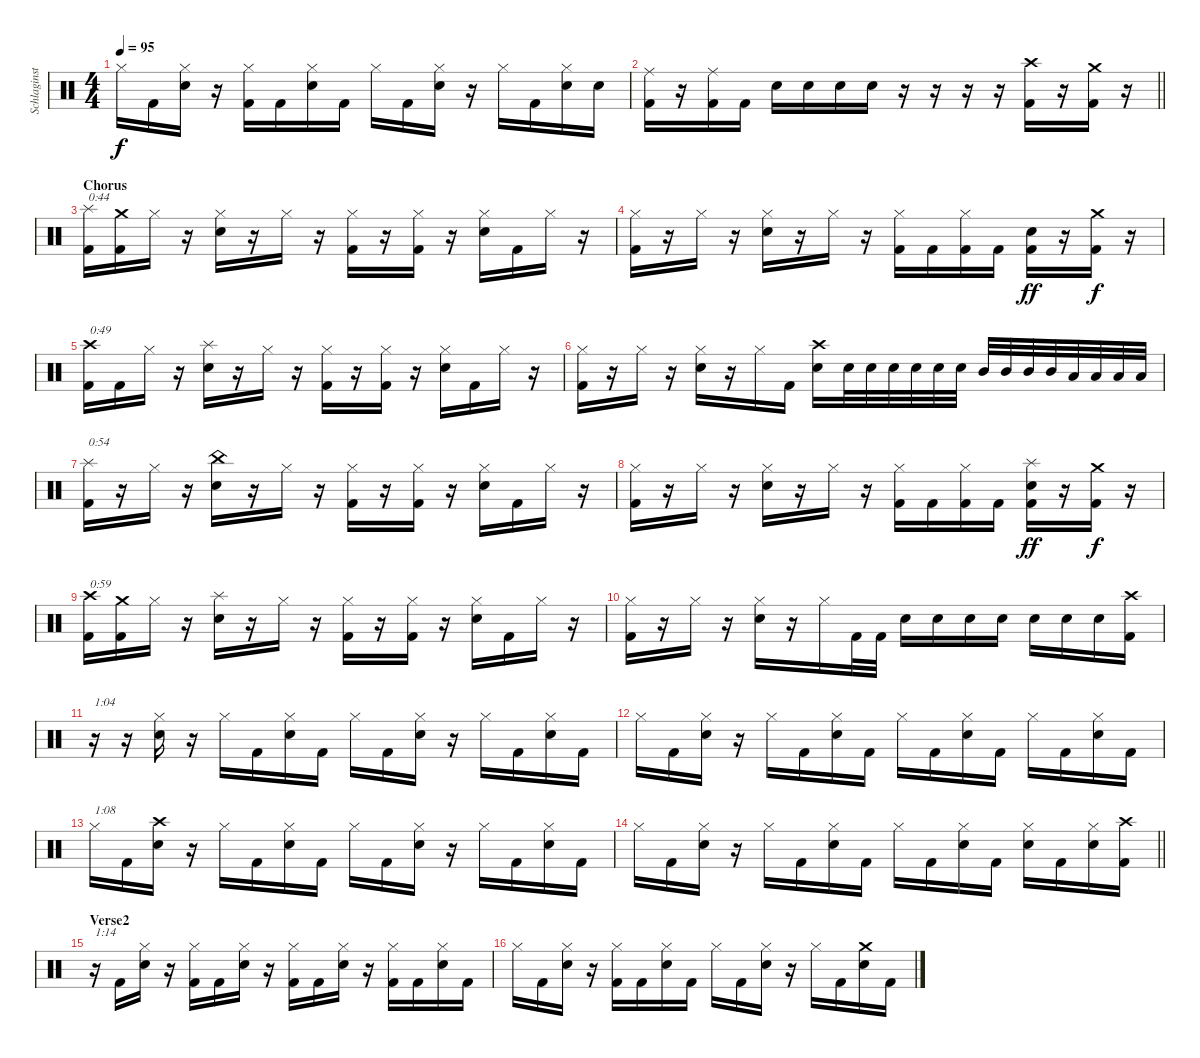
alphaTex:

\track ("Schlaginstrumente - Auswahl" "Schlaginst") {instrument percussion}
\staff {score}
\articulation defaults
\ts (4 4)
\tempo 95
\clef neutral
\ks c "Hi-Hat (closed)".16{dy f} "Kick (hit) 2".16
("Hi-Hat (closed)" "Electric Snare (hit)").16 r.16 ("Hi-Hat (closed)" "Kick (hit) 2").16 "Kick (hit) 2".16 ("Hi-Hat (closed)" "Electric Snare (hit)").16 "Kick (hit) 2".16 "Hi-Hat (closed)".16 "Kick (hit) 2".16 ("Hi-Hat (closed)" "Electric Snare (hit)").16 r.16 "Hi-Hat (closed)".16 "Kick (hit) 2".16 ("Hi-Hat (closed)" "Electric Snare (hit)").16 "Electric Snare (hit)".16 |
\barLineRight lightlight
("Ride (middle)" "Kick (hit) 2").16 r.16 ("Ride (middle)" "Kick (hit) 2").16 "Kick (hit) 2".16 "Electric Snare (hit)".16 "Electric Snare (hit)".16 "Electric Snare (hit)".16 "Electric Snare (hit)".16 r.16 r.16 r.16 r.16 ("Crash high (hit)" "Kick (hit) 2").16 r.16 ("Crash medium (hit)" "Kick (hit) 2").16 r.16 |
\section ("" "Chorus")
("Splash (hit)" "Kick (hit) 2").16{txt "0:44"} ("Crash medium (hit)" "Kick (hit) 2").16 "Hi-Hat (closed)".16 r.16 ("Hi-Hat (closed)" "Electric Snare (hit)").16 r.16 "Hi-Hat (closed)".16 r.16 ("Hi-Hat (closed)" "Kick (hit) 2").16 r.16 ("Hi-Hat (closed)" "Kick (hit) 2").16 r.16 ("Hi-Hat (closed)" "Electric Snare (hit)").16 "Kick (hit) 2".16 "Hi-Hat (closed)".16 r.16 |
("Hi-Hat (closed)" "Kick (hit) 2").16 r.16 "Hi-Hat (closed)".16 r.16 ("Hi-Hat (closed)" "Electric Snare (hit)").16 r.16 "Hi-Hat (closed)".16 r.16 ("Hi-Hat (closed)" "Kick (hit) 2").16 "Kick (hit) 2".16 ("Hi-Hat (closed)" "Kick (hit) 2").16 "Kick (hit) 2".16 ("Electric Snare (hit)" "Kick (hit) 2").16{dy ff} r.16 ("Crash medium (hit)" "Kick (hit) 2").16{dy f} r.16 |
("Crash high (hit)" "Kick (hit) 2").16{txt "0:49"} "Kick (hit) 2".16 "Hi-Hat (closed)".16 r.16 ("Splash (hit)" "Electric Snare (hit)").16 r.16 "Hi-Hat (closed)".16 r.16 ("Hi-Hat (closed)" "Kick (hit) 2").16 r.16 ("Hi-Hat (closed)" "Kick (hit) 2").16 r.16 ("Hi-Hat (closed)" "Electric Snare (hit)").16 "Kick (hit) 2".16 "Hi-Hat (closed)".16 r.16 |
("Hi-Hat (closed)" "Kick (hit) 2").16 r.16 "Hi-Hat (closed)".16 r.16 ("Hi-Hat (closed)" "Electric Snare (hit)").16 r.16 "Hi-Hat (closed)".16 "Kick (hit) 2".16 ("Crash high (hit)" "Electric Snare (hit)").16 "Electric Snare (hit)".32 "Electric Snare (hit)".32 "Electric Snare (hit)".32 "Electric Snare (hit)".32 "Electric Snare (hit)".32 "Electric Snare (hit)".32 "Mid Tom (hit)".32 "Mid Tom (hit)".32 "Mid Tom (hit)".32 "Mid Tom (hit)".32 "Low Tom (hit)".32 "Low Tom (hit)".32 "Low Tom (hit)".32 "Low Tom (hit)".32 |
("Splash (hit)" "Kick (hit) 2").16{txt "0:54"} r.16 "Hi-Hat (closed)".16 r.16 ("China (hit)" "Electric Snare (hit)").16 r.16 "Hi-Hat (closed)".16 r.16 ("Hi-Hat (closed)" "Kick (hit) 2").16 r.16 ("Hi-Hat (closed)" "Kick (hit) 2").16 r.16 ("Hi-Hat (closed)" "Electric Snare (hit)").16 "Kick (hit) 2".16 "Hi-Hat (closed)".16 r.16 |
("Hi-Hat (closed)" "Kick (hit) 2").16 r.16 "Hi-Hat (closed)".16 r.16 ("Hi-Hat (closed)" "Electric Snare (hit)").16 r.16 "Hi-Hat (closed)".16 r.16 ("Hi-Hat (closed)" "Kick (hit) 2").16 "Kick (hit) 2".16 ("Hi-Hat (closed)" "Kick (hit) 2").16 "Kick (hit) 2".16 ("Splash (hit)" "Electric Snare (hit)" "Kick (hit) 2").16{dy ff} r.16 ("Crash medium (hit)" "Kick (hit) 2").16{dy f} r.16 |
("Crash high (hit)" "Kick (hit) 2").16{txt "0:59"} ("Crash medium (hit)" "Kick (hit) 2").16 "Hi-Hat (closed)".16 r.16 ("Splash (hit)" "Electric Snare (hit)").16 r.16 "Hi-Hat (closed)".16 r.16 ("Hi-Hat (closed)" "Kick (hit) 2").16 r.16 ("Hi-Hat (closed)" "Kick (hit) 2").16 r.16 ("Hi-Hat (closed)" "Electric Snare (hit)").16 "Kick (hit) 2".16 "Hi-Hat (closed)".16 r.16 |
("Hi-Hat (closed)" "Kick (hit) 2").16 r.16 "Hi-Hat (closed)".16 r.16 ("Hi-Hat (closed)" "Electric Snare (hit)").16 r.16 "Hi-Hat (closed)".16 "Kick (hit) 2".32 "Kick (hit) 2".32 "Electric Snare (hit)".16 "Electric Snare (hit)".16 "Electric Snare (hit)".16 "Electric Snare (hit)".16 "Electric Snare (hit)".16 "Electric Snare (hit)".16 "Electric Snare (hit)".16 ("Crash high (hit)" "Kick (hit) 2").16 |
r.16{txt "1:04"} r.16 ("Hi-Hat (closed)" "Electric Snare (hit)").16 r.16 "Hi-Hat (closed)".16 "Kick (hit) 2".16 ("Hi-Hat (closed)" "Electric Snare (hit)").16 "Kick (hit) 2".16 "Hi-Hat (closed)".16 "Kick (hit) 2".16 ("Hi-Hat (closed)" "Electric Snare (hit)").16 r.16 "Hi-Hat (closed)".16 "Kick (hit) 2".16 ("Hi-Hat (closed)" "Electric Snare (hit)").16 "Kick (hit) 2".16 |
"Hi-Hat (closed)".16 "Kick (hit) 2".16 ("Hi-Hat (closed)" "Electric Snare (hit)").16 r.16 "Hi-Hat (closed)".16 "Kick (hit) 2".16 ("Hi-Hat (closed)" "Electric Snare (hit)").16 "Kick (hit) 2".16 "Hi-Hat (closed)".16 "Kick (hit) 2".16 ("Hi-Hat (closed)" "Electric Snare (hit)").16 "Kick (hit) 2".16 "Hi-Hat (closed)".16 "Kick (hit) 2".16 ("Hi-Hat (closed)" "Electric Snare (hit)").16 "Kick (hit) 2".16 |
"Hi-Hat (closed)".16{txt "1:08"} "Kick (hit) 2".16 ("Crash high (hit)" "Electric Snare (hit)").16 r.16 "Hi-Hat (closed)".16 "Kick (hit) 2".16 ("Hi-Hat (closed)" "Electric Snare (hit)").16 "Kick (hit) 2".16 "Hi-Hat (closed)".16 "Kick (hit) 2".16 ("Hi-Hat (closed)" "Electric Snare (hit)").16 r.16 "Hi-Hat (closed)".16 "Kick (hit) 2".16 ("Hi-Hat (closed)" "Electric Snare (hit)").16 "Kick (hit) 2".16 |
\barLineRight lightlight "Hi-Hat (closed)".16 "Kick (hit) 2".16
("Hi-Hat (closed)" "Electric Snare (hit)").16 r.16 "Hi-Hat (closed)".16 "Kick (hit) 2".16 ("Hi-Hat (closed)" "Electric Snare (hit)").16 "Kick (hit) 2".16 "Hi-Hat (closed)".16 "Kick (hit) 2".16 ("Hi-Hat (closed)" "Electric Snare (hit)").16 "Kick (hit) 2".16 ("Hi-Hat (closed)" "Electric Snare (hit)").16 "Kick (hit) 2".16 ("Hi-Hat (closed)" "Electric Snare (hit)").16 ("Crash high (hit)" "Kick (hit) 2").16 |
\section ("" "Verse2")
r.16{txt "1:14"} "Kick (hit) 2".16 ("Hi-Hat (closed)" "Electric Snare (hit)").16 r.16 ("Hi-Hat (closed)" "Kick (hit) 2").16 "Kick (hit) 2".16 ("Hi-Hat (closed)" "Electric Snare (hit)").16 r.16 ("Hi-Hat (closed)" "Kick (hit) 2").16 "Kick (hit) 2".16 ("Hi-Hat (closed)" "Electric Snare (hit)").16 r.16 ("Hi-Hat (closed)" "Kick (hit) 2").16 "Kick (hit) 2".16 ("Hi-Hat (closed)" "Electric Snare (hit)").16 "Kick (hit) 2".16 |
"Hi-Hat (closed)".16 "Kick (hit) 2".16 ("Hi-Hat (closed)" "Electric Snare (hit)").16 r.16 ("Hi-Hat (closed)" "Kick (hit) 2").16 "Kick (hit) 2".16 ("Hi-Hat (closed)" "Electric Snare (hit)").16 "Kick (hit) 2".16 "Hi-Hat (closed)".16 "Kick (hit) 2".16 ("Hi-Hat (closed)" "Electric Snare (hit)").16 r.16 "Hi-Hat (closed)".16 "Kick (hit) 2".16 ("Crash medium (hit)" "Electric Snare (hit)").16 "Kick (hit) 2".16
